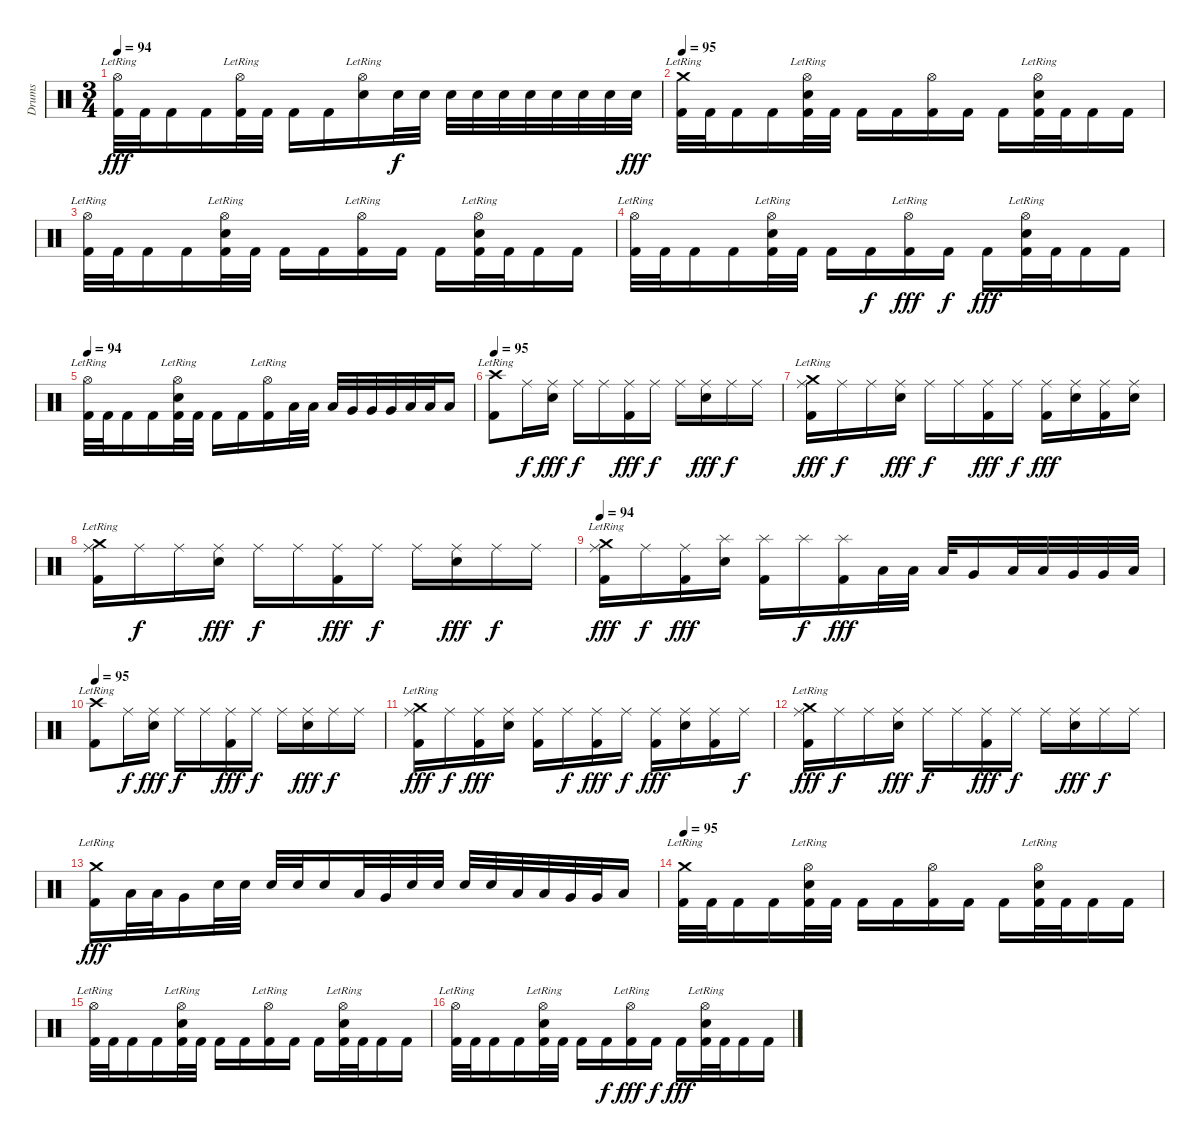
\track ("Drums" "Drums") {instrument percussion}
\staff {score}
\articulation defaults
\ts (3 4)
\tempo 94
\clef neutral
\ks c
("Hi-Hat (open)"{lr} "Kick (hit) 2").32{dy fff} "Kick (hit) 2".32 "Kick (hit) 2".16 "Kick (hit) 2".16 ("Hi-Hat (open)"{lr} "Kick (hit) 2").32 "Kick (hit) 2".32 "Kick (hit) 2".16 "Kick (hit) 2".16 ("Hi-Hat (open)"{lr} "Electric Snare (hit)").16 "Electric Snare (hit)".32{dy f} "Electric Snare (hit)".32 "Electric Snare (hit)".32 "Electric Snare (hit)".32 "Electric Snare (hit)".32 "Electric Snare (hit)".32 "Electric Snare (hit)".32 "Electric Snare (hit)".32 "Electric Snare (hit)".32 "Electric Snare (hit)".32{dy fff} |
\tempo 95
("Crash medium (hit)"{lr} "Kick (hit) 2").32 "Kick (hit) 2".32 "Kick (hit) 2".16 "Kick (hit) 2".16 ("Hi-Hat (open)"{lr} "Electric Snare (hit)" "Kick (hit) 2").32 "Kick (hit) 2".32 "Kick (hit) 2".16 "Kick (hit) 2".16 ("Hi-Hat (open)" "Kick (hit) 2").16 "Kick (hit) 2".16 "Kick (hit) 2".16 ("Hi-Hat (open)"{lr} "Electric Snare (hit)" "Kick (hit) 2").32 "Kick (hit) 2".32 "Kick (hit) 2".16 "Kick (hit) 2".16 |
("Hi-Hat (open)"{lr} "Kick (hit) 2").32 "Kick (hit) 2".32 "Kick (hit) 2".16 "Kick (hit) 2".16 ("Hi-Hat (open)"{lr} "Electric Snare (hit)" "Kick (hit) 2").32 "Kick (hit) 2".32 "Kick (hit) 2".16 "Kick (hit) 2".16 ("Hi-Hat (open)"{lr} "Kick (hit) 2").16 "Kick (hit) 2".16 "Kick (hit) 2".16 ("Hi-Hat (open)"{lr} "Electric Snare (hit)" "Kick (hit) 2").32 "Kick (hit) 2".32 "Kick (hit) 2".16 "Kick (hit) 2".16 |
("Hi-Hat (open)"{lr} "Kick (hit) 2").32 "Kick (hit) 2".32 "Kick (hit) 2".16 "Kick (hit) 2".16 ("Hi-Hat (open)"{lr} "Electric Snare (hit)" "Kick (hit) 2").32 "Kick (hit) 2".32 "Kick (hit) 2".16 "Kick (hit) 2".16{dy f} ("Hi-Hat (open)"{lr} "Kick (hit) 2").16{dy fff} "Kick (hit) 2".16{dy f} "Kick (hit) 2".16{dy fff} ("Hi-Hat (open)"{lr} "Electric Snare (hit)" "Kick (hit) 2").32 "Kick (hit) 2".32 "Kick (hit) 2".16 "Kick (hit) 2".16 |
\tempo 94
("Hi-Hat (open)"{lr} "Kick (hit) 2").32 "Kick (hit) 2".32 "Kick (hit) 2".16 "Kick (hit) 2".16 ("Hi-Hat (open)"{lr} "Electric Snare (hit)" "Kick (hit) 2").32 "Kick (hit) 2".32 "Kick (hit) 2".16 "Kick (hit) 2".16 ("Hi-Hat (open)"{lr} "Kick (hit) 2").16 "Low Tom (hit)".32 "Low Tom (hit)".32 "Low Tom (hit)".32 "Very Low Tom (hit)".32 "Very Low Tom (hit)".32 "Very Low Tom (hit)".32 "Low Floor Tom (hit)".32 "Low Floor Tom (hit)".32 "Low Floor Tom (hit)".16 |
\tempo 95
("Crash high (hit)"{lr} "Kick (hit) 2").8 "Ride (middle)".16{dy f} ("Ride (middle)" "Electric Snare (hit)").16{dy fff} "Ride (middle)".16{dy f} "Ride (middle)".16 ("Ride (middle)" "Kick (hit) 2").16{dy fff} "Ride (middle)".16{dy f} "Ride (middle)".16 ("Ride (middle)" "Electric Snare (hit)").16{dy fff} "Ride (middle)".16{dy f} "Ride (middle)".16 |
("Crash medium (hit)"{lr} "Ride (middle)" "Kick (hit) 2").16{dy fff} "Ride (middle)".16{dy f} "Ride (middle)".16 ("Ride (middle)" "Electric Snare (hit)").16{dy fff} "Ride (middle)".16{dy f} "Ride (middle)".16 ("Ride (middle)" "Kick (hit) 2").16{dy fff} "Ride (middle)".16{dy f} ("Ride (middle)" "Kick (hit) 2").16{dy fff} ("Ride (middle)" "Electric Snare (hit)").16 ("Ride (middle)" "Kick (hit) 2").16 ("Ride (middle)" "Electric Snare (hit)").16 |
("Crash medium (hit)"{lr} "Ride (middle)" "Kick (hit) 2").16 "Ride (middle)".16{dy f} "Ride (middle)".16 ("Ride (middle)" "Electric Snare (hit)").16{dy fff} "Ride (middle)".16{dy f} "Ride (middle)".16 ("Ride (middle)" "Kick (hit) 2").16{dy fff} "Ride (middle)".16{dy f} "Ride (middle)".16 ("Ride (middle)" "Electric Snare (hit)").16{dy fff} "Ride (middle)".16{dy f} "Ride (middle)".16 |
\tempo 94
("Crash medium (hit)"{lr} "Ride (middle)" "Kick (hit) 2").16{dy fff} "Ride (middle)".16{dy f} ("Ride (middle)" "Kick (hit) 2").16{dy fff} ("Splash (hit)" "Electric Snare (hit)").16 ("Splash (hit)" "Kick (hit) 2").16 "Splash (hit)".16{dy f} ("Splash (hit)" "Kick (hit) 2").16{dy fff} "Low Tom (hit)".32 "Low Tom (hit)".32 "Low Tom (hit)".32 "Very Low Tom (hit)".16 "Low Tom (hit)".32 "Low Tom (hit)".32 "Very Low Tom (hit)".32 "Very Low Tom (hit)".32 "Low Floor Tom (hit)".32 |
\tempo 95
("Crash high (hit)"{lr} "Kick (hit) 2").8 "Ride (middle)".16{dy f} ("Ride (middle)" "Electric Snare (hit)").16{dy fff} "Ride (middle)".16{dy f} "Ride (middle)".16 ("Ride (middle)" "Kick (hit) 2").16{dy fff} "Ride (middle)".16{dy f} "Ride (middle)".16 ("Ride (middle)" "Electric Snare (hit)").16{dy fff} "Ride (middle)".16{dy f} "Ride (middle)".16 |
("Crash medium (hit)"{lr} "Ride (middle)" "Kick (hit) 2").16{dy fff} "Ride (middle)".16{dy f} ("Ride (middle)" "Kick (hit) 2").16{dy fff} ("Ride (middle)" "Electric Snare (hit)").16 ("Ride (middle)" "Kick (hit) 2").16 "Ride (middle)".16{dy f} ("Ride (middle)" "Kick (hit) 2").16{dy fff} "Ride (middle)".16{dy f} ("Ride (middle)" "Kick (hit) 2").16{dy fff} ("Ride (middle)" "Electric Snare (hit)").16 ("Ride (middle)" "Kick (hit) 2").16 "Ride (middle)".16{dy f} |
("Crash medium (hit)"{lr} "Ride (middle)" "Kick (hit) 2").16{dy fff} "Ride (middle)".16{dy f} "Ride (middle)".16 ("Ride (middle)" "Electric Snare (hit)").16{dy fff} "Ride (middle)".16{dy f} "Ride (middle)".16 ("Ride (middle)" "Kick (hit) 2").16{dy fff} "Ride (middle)".16{dy f} "Ride (middle)".16 ("Ride (middle)" "Electric Snare (hit)").16{dy fff} "Ride (middle)".16{dy f} "Ride (middle)".16 |
("Crash medium (hit)"{lr} "Kick (hit) 2").16{dy fff} "Low Tom (hit)".32 "Low Tom (hit)".32 "Very Low Tom (hit)".16 "Electric Snare (hit)".32 "Electric Snare (hit)".32 "Electric Snare (hit)".32 "Electric Snare (hit)".32 "Electric Snare (hit)".16 "Low Tom (hit)".32 "Very Low Tom (hit)".32 "Electric Snare (hit)".32 "Electric Snare (hit)".32 "Electric Snare (hit)".32 "Electric Snare (hit)".32 "Low Tom (hit)".32 "Low Tom (hit)".32 "Very Low Tom (hit)".32 "Very Low Tom (hit)".32 "Low Floor Tom (hit)".16 |
\tempo 95
("Crash medium (hit)"{lr} "Kick (hit) 2").32 "Kick (hit) 2".32 "Kick (hit) 2".16 "Kick (hit) 2".16 ("Hi-Hat (open)"{lr} "Electric Snare (hit)" "Kick (hit) 2").32 "Kick (hit) 2".32 "Kick (hit) 2".16 "Kick (hit) 2".16 ("Hi-Hat (open)" "Kick (hit) 2").16 "Kick (hit) 2".16 "Kick (hit) 2".16 ("Hi-Hat (open)"{lr} "Electric Snare (hit)" "Kick (hit) 2").32 "Kick (hit) 2".32 "Kick (hit) 2".16 "Kick (hit) 2".16 |
("Hi-Hat (open)"{lr} "Kick (hit) 2").32 "Kick (hit) 2".32 "Kick (hit) 2".16 "Kick (hit) 2".16 ("Hi-Hat (open)"{lr} "Electric Snare (hit)" "Kick (hit) 2").32 "Kick (hit) 2".32 "Kick (hit) 2".16 "Kick (hit) 2".16 ("Hi-Hat (open)"{lr} "Kick (hit) 2").16 "Kick (hit) 2".16 "Kick (hit) 2".16 ("Hi-Hat (open)"{lr} "Electric Snare (hit)" "Kick (hit) 2").32 "Kick (hit) 2".32 "Kick (hit) 2".16 "Kick (hit) 2".16 |
("Hi-Hat (open)"{lr} "Kick (hit) 2").32 "Kick (hit) 2".32 "Kick (hit) 2".16 "Kick (hit) 2".16 ("Hi-Hat (open)"{lr} "Electric Snare (hit)" "Kick (hit) 2").32 "Kick (hit) 2".32 "Kick (hit) 2".16 "Kick (hit) 2".16{dy f} ("Hi-Hat (open)"{lr} "Kick (hit) 2").16{dy fff} "Kick (hit) 2".16{dy f} "Kick (hit) 2".16{dy fff} ("Hi-Hat (open)"{lr} "Electric Snare (hit)" "Kick (hit) 2").32 "Kick (hit) 2".32 "Kick (hit) 2".16 "Kick (hit) 2".16
